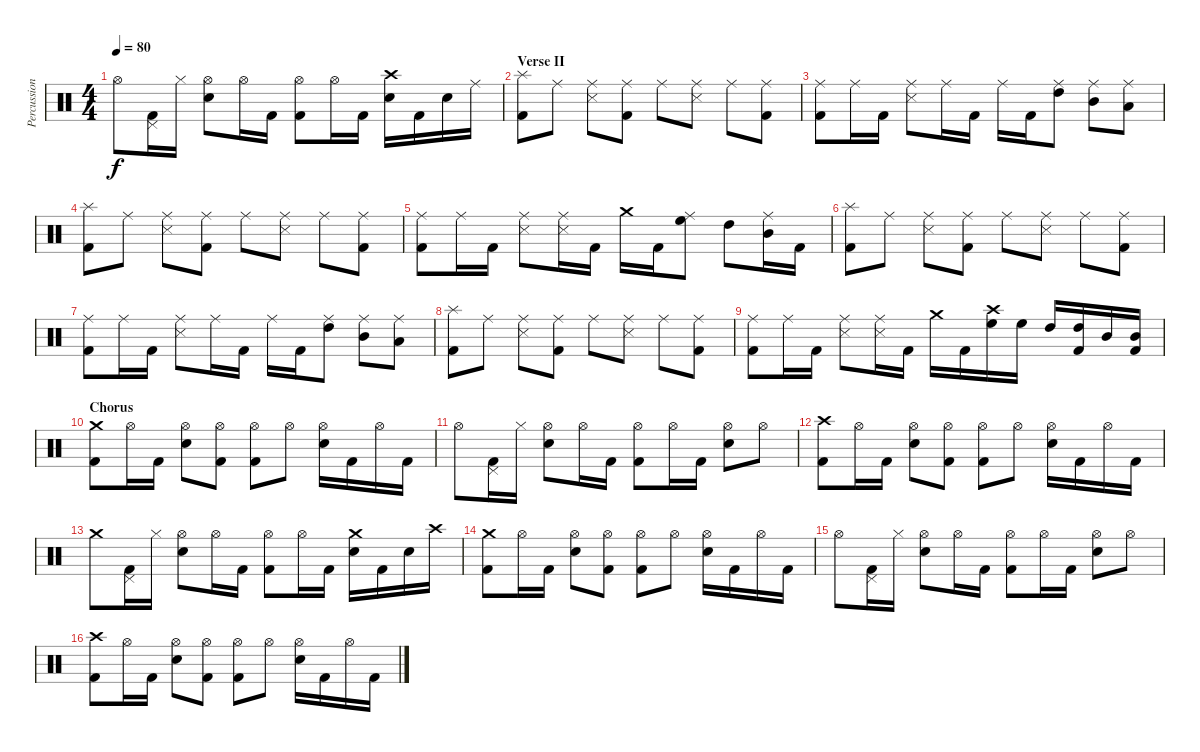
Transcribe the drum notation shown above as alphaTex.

\track ("Percussion" "Percussion") {instrument percussion}
\staff {score}
\articulation defaults
\ts (4 4)
\tempo 80
\clef neutral
\ks c "Hi-Hat (open)".8{dy f}
("Pedal Hi-Hat (hit)" "Kick (hit) 2").16 "Hi-Hat (closed)".16 ("Hi-Hat (open)" "Electric Snare (hit)").8 "Hi-Hat (open)".16 "Kick (hit) 2".16 ("Hi-Hat (open)" "Kick (hit) 2").8 "Hi-Hat (open)".16 "Kick (hit) 2".16 ("Crash high (hit)" "Electric Snare (hit)").16 "Kick (hit) 2".16 "Electric Snare (hit)".16 "Ride (middle)".16 |
\section ("" "Verse II")
("Splash (hit)" "Kick (hit) 2").8 "Ride (middle)".8 ("Ride (middle)" "Snare (side stick) 3").8 ("Ride (middle)" "Kick (hit) 2").8 "Ride (middle)".8 ("Ride (middle)" "Snare (side stick) 3").8 "Ride (middle)".8 ("Ride (middle)" "Kick (hit) 2").8 |
("Ride (middle)" "Kick (hit) 2").8 "Ride (middle)".16 "Kick (hit) 2".16 ("Ride (middle)" "Snare (side stick) 3").8 "Ride (middle)".16 "Kick (hit) 2".16 "Ride (middle)".16 "Kick (hit) 2".16 ("Ride (middle)" "High Tom (hit)").8 ("Ride (middle)" "Mid Tom (hit)").8 ("Ride (middle)" "Low Tom (hit)").8 |
("Splash (hit)" "Kick (hit) 2").8 "Ride (middle)".8 ("Ride (middle)" "Snare (side stick) 3").8 ("Ride (middle)" "Kick (hit) 2").8 "Ride (middle)".8 ("Ride (middle)" "Snare (side stick) 3").8 "Ride (middle)".8 ("Ride (middle)" "Kick (hit) 2").8 |
("Ride (middle)" "Kick (hit) 2").8 "Ride (middle)".16 "Kick (hit) 2".16 ("Ride (middle)" "Snare (side stick) 3").8 ("Ride (middle)" "Snare (side stick) 3").16 "Kick (hit) 2".16 "Crash medium (hit)".16 "Kick (hit) 2".16 ("Ride (middle)" "High Floor Tom (hit)").8 "High Tom (hit)".8 ("Ride (middle)" "Mid Tom (hit)").16 "Kick (hit) 2".16 |
("Splash (hit)" "Kick (hit) 2").8 "Ride (middle)".8 ("Ride (middle)" "Snare (side stick) 3").8 ("Ride (middle)" "Kick (hit) 2").8 "Ride (middle)".8 ("Ride (middle)" "Snare (side stick) 3").8 "Ride (middle)".8 ("Ride (middle)" "Kick (hit) 2").8 |
("Ride (middle)" "Kick (hit) 2").8 "Ride (middle)".16 "Kick (hit) 2".16 ("Ride (middle)" "Snare (side stick) 3").8 "Ride (middle)".16 "Kick (hit) 2".16 "Ride (middle)".16 "Kick (hit) 2".16 ("Ride (middle)" "High Tom (hit)").8 ("Ride (middle)" "Mid Tom (hit)").8 ("Ride (middle)" "Low Tom (hit)").8 |
("Splash (hit)" "Kick (hit) 2").8 "Ride (middle)".8 ("Ride (middle)" "Snare (side stick) 3").8 ("Ride (middle)" "Kick (hit) 2").8 "Ride (middle)".8 ("Ride (middle)" "Snare (side stick) 3").8 "Ride (middle)".8 ("Ride (middle)" "Kick (hit) 2").8 |
("Ride (middle)" "Kick (hit) 2").8 "Ride (middle)".16 "Kick (hit) 2".16 ("Ride (middle)" "Snare (side stick) 3").8 ("Ride (middle)" "Snare (side stick) 3").16 "Kick (hit) 2".16 "Crash medium (hit)".16 "Kick (hit) 2".16 ("Crash high (hit)" "High Floor Tom (hit)").16 "High Floor Tom (hit)".16 "High Tom (hit)".16 ("High Tom (hit)" "Kick (hit) 2").16 "Mid Tom (hit)".16 ("Mid Tom (hit)" "Kick (hit) 2").16 |
\section ("" "Chorus")
("Crash medium (hit)" "Kick (hit) 2").8 "Hi-Hat (open)".16 "Kick (hit) 2".16 ("Hi-Hat (open)" "Electric Snare (hit)").8 ("Hi-Hat (open)" "Kick (hit) 2").8 ("Hi-Hat (open)" "Kick (hit) 2").8 "Hi-Hat (open)".8 ("Hi-Hat (open)" "Electric Snare (hit)").16 "Kick (hit) 2".16 "Hi-Hat (open)".16 "Kick (hit) 2".16 |
"Hi-Hat (open)".8 ("Pedal Hi-Hat (hit)" "Kick (hit) 2").16 "Hi-Hat (closed)".16 ("Hi-Hat (open)" "Electric Snare (hit)").8 "Hi-Hat (open)".16 "Kick (hit) 2".16 ("Hi-Hat (open)" "Kick (hit) 2").8 "Hi-Hat (open)".16 "Kick (hit) 2".16 ("Hi-Hat (open)" "Electric Snare (hit)").8 "Hi-Hat (open)".8 |
("Crash high (hit)" "Kick (hit) 2").8 "Hi-Hat (open)".16 "Kick (hit) 2".16 ("Hi-Hat (open)" "Electric Snare (hit)").8 ("Hi-Hat (open)" "Kick (hit) 2").8 ("Hi-Hat (open)" "Kick (hit) 2").8 "Hi-Hat (open)".8 ("Hi-Hat (open)" "Electric Snare (hit)").16 "Kick (hit) 2".16 "Hi-Hat (open)".16 "Kick (hit) 2".16 |
"Crash medium (hit)".8 ("Pedal Hi-Hat (hit)" "Kick (hit) 2").16 "Hi-Hat (closed)".16 ("Hi-Hat (open)" "Electric Snare (hit)").8 "Hi-Hat (open)".16 "Kick (hit) 2".16 ("Hi-Hat (open)" "Kick (hit) 2").8 "Hi-Hat (open)".16 "Kick (hit) 2".16 ("Crash medium (hit)" "Electric Snare (hit)").16 "Kick (hit) 2".16 "Electric Snare (hit)".16 "Crash high (hit)".16 |
("Crash medium (hit)" "Kick (hit) 2").8 "Hi-Hat (open)".16 "Kick (hit) 2".16 ("Hi-Hat (open)" "Electric Snare (hit)").8 ("Hi-Hat (open)" "Kick (hit) 2").8 ("Hi-Hat (open)" "Kick (hit) 2").8 "Hi-Hat (open)".8 ("Hi-Hat (open)" "Electric Snare (hit)").16 "Kick (hit) 2".16 "Hi-Hat (open)".16 "Kick (hit) 2".16 |
"Hi-Hat (open)".8 ("Pedal Hi-Hat (hit)" "Kick (hit) 2").16 "Hi-Hat (closed)".16 ("Hi-Hat (open)" "Electric Snare (hit)").8 "Hi-Hat (open)".16 "Kick (hit) 2".16 ("Hi-Hat (open)" "Kick (hit) 2").8 "Hi-Hat (open)".16 "Kick (hit) 2".16 ("Hi-Hat (open)" "Electric Snare (hit)").8 "Hi-Hat (open)".8 |
("Crash high (hit)" "Kick (hit) 2").8 "Hi-Hat (open)".16 "Kick (hit) 2".16 ("Hi-Hat (open)" "Electric Snare (hit)").8 ("Hi-Hat (open)" "Kick (hit) 2").8 ("Hi-Hat (open)" "Kick (hit) 2").8 "Hi-Hat (open)".8 ("Hi-Hat (open)" "Electric Snare (hit)").16 "Kick (hit) 2".16 "Hi-Hat (open)".16 "Kick (hit) 2".16
